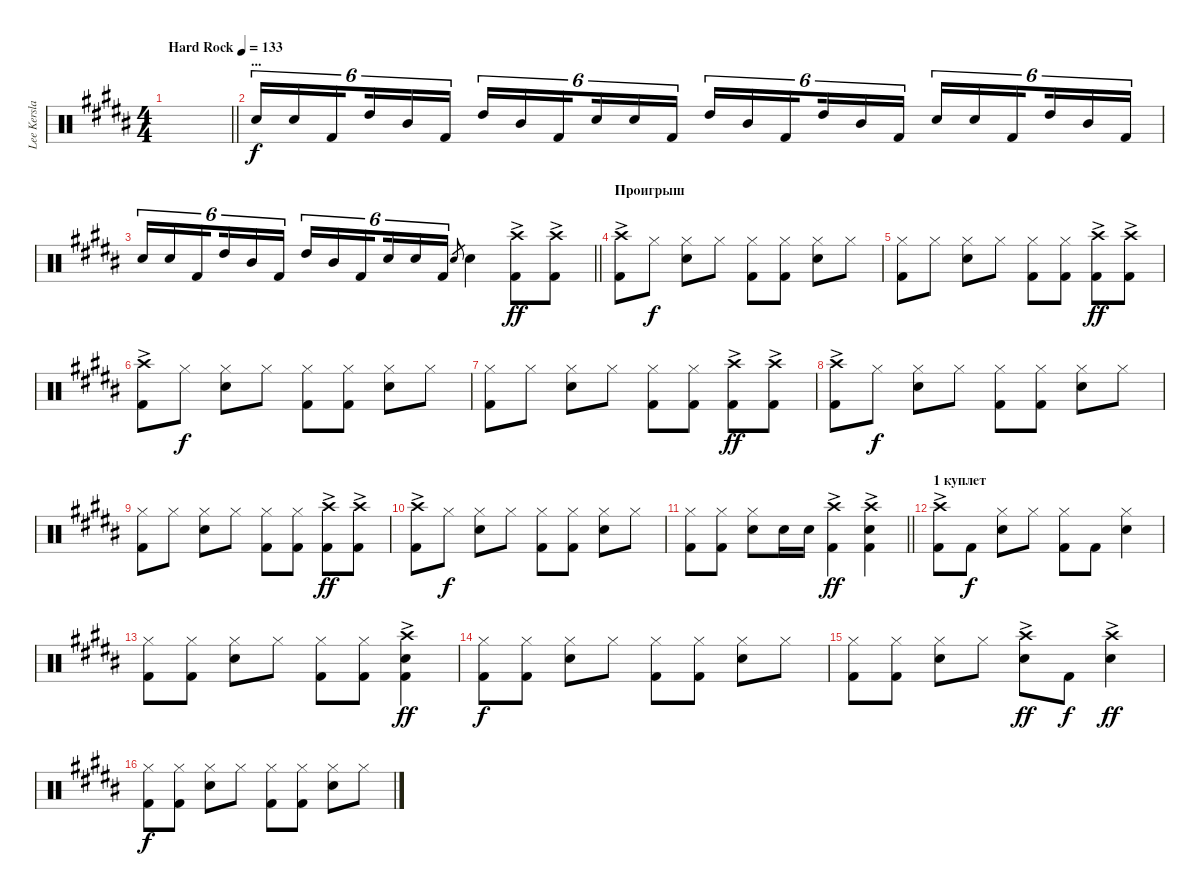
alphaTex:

\track ("Lee Kerslake" "Lee Kersla") {instrument percussion}
\staff {score}
\articulation defaults
\ts (4 4)
\tempo (133 "Hard Rock")
\clef neutral
\barLineRight lightlight
\ks b
|
\section ("" "...")
"Snare (hit) 2".16{tu (6 4)} "Snare (hit) 2".16{tu (6 4)} "Kick (hit) 2".16{tu (6 4) beam splitsecondary} "High Tom (hit)".16{tu (6 4)} "Mid Tom (hit)".16{tu (6 4)} "Kick (hit) 2".16{tu (6 4)} "High Tom (hit)".16{tu (6 4)} "Mid Tom (hit)".16{tu (6 4)} "Kick (hit) 2".16{tu (6 4) beam splitsecondary} "Snare (hit) 2".16{tu (6 4)} "Snare (hit) 2".16{tu (6 4)} "Kick (hit) 2".16{tu (6 4)} "High Tom (hit)".16{tu (6 4)} "Mid Tom (hit)".16{tu (6 4)} "Kick (hit) 2".16{tu (6 4) beam splitsecondary} "High Tom (hit)".16{tu (6 4)} "Mid Tom (hit)".16{tu (6 4)} "Kick (hit) 2".16{tu (6 4)} "Snare (hit) 2".16{tu (6 4)} "Snare (hit) 2".16{tu (6 4)} "Kick (hit) 2".16{tu (6 4) beam splitsecondary} "High Tom (hit)".16{tu (6 4)} "Mid Tom (hit)".16{tu (6 4)} "Kick (hit) 2".16{tu (6 4)} |
\barLineRight lightlight "Snare (hit) 2".16{tu (6 4)} "Snare (hit) 2".16{tu (6 4)} "Kick (hit) 2".16{tu (6 4) beam splitsecondary} "High Tom (hit)".16{tu (6 4)} "Mid Tom (hit)".16{tu (6 4)} "Kick (hit) 2".16{tu (6 4)} "High Tom (hit)".16{tu (6 4)} "Mid Tom (hit)".16{tu (6 4)} "Kick (hit) 2".16{tu (6 4) beam splitsecondary} "Snare (hit) 2".16{tu (6 4)} "Snare (hit) 2".16{tu (6 4)} "Kick (hit) 2".16{tu (6 4)} "Snare (hit) 2".8{gr} "Snare (hit) 2".4
("Kick (hit) 2" "Crash high (hit)"{ac}).8{dy ff} ("Kick (hit) 2" "Crash high (hit)"{ac}).8 |
\section ("" "Проигрыш")
("Kick (hit) 2" "Crash high (hit)"{ac}).8 "Hi-Hat (closed)".8{dy f} ("Snare (hit) 2" "Hi-Hat (closed)").8 "Hi-Hat (closed)".8 ("Hi-Hat (closed)" "Kick (hit) 2").8 ("Hi-Hat (closed)" "Kick (hit) 2").8 ("Snare (hit) 2" "Hi-Hat (closed)").8 "Hi-Hat (closed)".8 |
("Hi-Hat (closed)" "Kick (hit) 2").8 "Hi-Hat (closed)".8 ("Snare (hit) 2" "Hi-Hat (closed)").8 "Hi-Hat (closed)".8 ("Hi-Hat (closed)" "Kick (hit) 2").8 ("Hi-Hat (closed)" "Kick (hit) 2").8 ("Kick (hit) 2" "Crash high (hit)"{ac}).8{dy ff} ("Kick (hit) 2" "Crash high (hit)"{ac}).8 |
("Kick (hit) 2" "Crash high (hit)"{ac}).8 "Hi-Hat (closed)".8{dy f} ("Snare (hit) 2" "Hi-Hat (closed)").8 "Hi-Hat (closed)".8 ("Hi-Hat (closed)" "Kick (hit) 2").8 ("Hi-Hat (closed)" "Kick (hit) 2").8 ("Snare (hit) 2" "Hi-Hat (closed)").8 "Hi-Hat (closed)".8 |
("Hi-Hat (closed)" "Kick (hit) 2").8 "Hi-Hat (closed)".8 ("Snare (hit) 2" "Hi-Hat (closed)").8 "Hi-Hat (closed)".8 ("Hi-Hat (closed)" "Kick (hit) 2").8 ("Hi-Hat (closed)" "Kick (hit) 2").8 ("Kick (hit) 2" "Crash high (hit)"{ac}).8{dy ff} ("Kick (hit) 2" "Crash high (hit)"{ac}).8 |
("Kick (hit) 2" "Crash high (hit)"{ac}).8 "Hi-Hat (closed)".8{dy f} ("Snare (hit) 2" "Hi-Hat (closed)").8 "Hi-Hat (closed)".8 ("Hi-Hat (closed)" "Kick (hit) 2").8 ("Hi-Hat (closed)" "Kick (hit) 2").8 ("Snare (hit) 2" "Hi-Hat (closed)").8 "Hi-Hat (closed)".8 |
("Hi-Hat (closed)" "Kick (hit) 2").8 "Hi-Hat (closed)".8 ("Snare (hit) 2" "Hi-Hat (closed)").8 "Hi-Hat (closed)".8 ("Hi-Hat (closed)" "Kick (hit) 2").8 ("Hi-Hat (closed)" "Kick (hit) 2").8 ("Kick (hit) 2" "Crash high (hit)"{ac}).8{dy ff} ("Kick (hit) 2" "Crash high (hit)"{ac}).8 |
("Kick (hit) 2" "Crash high (hit)"{ac}).8 "Hi-Hat (closed)".8{dy f} ("Snare (hit) 2" "Hi-Hat (closed)").8 "Hi-Hat (closed)".8 ("Hi-Hat (closed)" "Kick (hit) 2").8 ("Hi-Hat (closed)" "Kick (hit) 2").8 ("Snare (hit) 2" "Hi-Hat (closed)").8 "Hi-Hat (closed)".8 |
\barLineRight lightlight
("Hi-Hat (closed)" "Kick (hit) 2").8 ("Hi-Hat (closed)" "Kick (hit) 2").8 ("Snare (hit) 2" "Hi-Hat (closed)").8 "Snare (hit) 2".16 "Snare (hit) 2".16 ("Kick (hit) 2" "Crash high (hit)"{ac}).4{dy ff} ("Kick (hit) 2" "Snare (hit) 2" "Crash high (hit)"{ac}).4 |
\section ("" "1 куплет")
("Kick (hit) 2" "Crash high (hit)"{ac}).8 "Kick (hit) 2".8{dy f} ("Snare (hit) 2" "Hi-Hat (closed)").8 "Hi-Hat (closed)".8 ("Hi-Hat (closed)" "Kick (hit) 2").8 "Kick (hit) 2".8 ("Snare (hit) 2" "Hi-Hat (closed)").4 |
("Hi-Hat (closed)" "Kick (hit) 2").8 ("Hi-Hat (closed)" "Kick (hit) 2").8 ("Snare (hit) 2" "Hi-Hat (closed)").8 "Hi-Hat (closed)".8 ("Hi-Hat (closed)" "Kick (hit) 2").8 ("Hi-Hat (closed)" "Kick (hit) 2").8 ("Kick (hit) 2" "Snare (hit) 2" "Crash high (hit)"{ac}).4{dy ff} |
("Hi-Hat (closed)" "Kick (hit) 2").8{dy f} ("Hi-Hat (closed)" "Kick (hit) 2").8 ("Snare (hit) 2" "Hi-Hat (closed)").8 "Hi-Hat (closed)".8 ("Hi-Hat (closed)" "Kick (hit) 2").8 ("Hi-Hat (closed)" "Kick (hit) 2").8 ("Snare (hit) 2" "Hi-Hat (closed)").8 "Hi-Hat (closed)".8 |
("Hi-Hat (closed)" "Kick (hit) 2").8 ("Hi-Hat (closed)" "Kick (hit) 2").8 ("Snare (hit) 2" "Hi-Hat (closed)").8 "Hi-Hat (closed)".8 ("Snare (hit) 2" "Crash high (hit)"{ac}).8{dy ff} "Kick (hit) 2".8{dy f} ("Snare (hit) 2" "Crash high (hit)"{ac}).4{dy ff} |
("Hi-Hat (closed)" "Kick (hit) 2").8{dy f} ("Hi-Hat (closed)" "Kick (hit) 2").8 ("Snare (hit) 2" "Hi-Hat (closed)").8 "Hi-Hat (closed)".8 ("Hi-Hat (closed)" "Kick (hit) 2").8 ("Hi-Hat (closed)" "Kick (hit) 2").8 ("Snare (hit) 2" "Hi-Hat (closed)").8 "Hi-Hat (closed)".8
